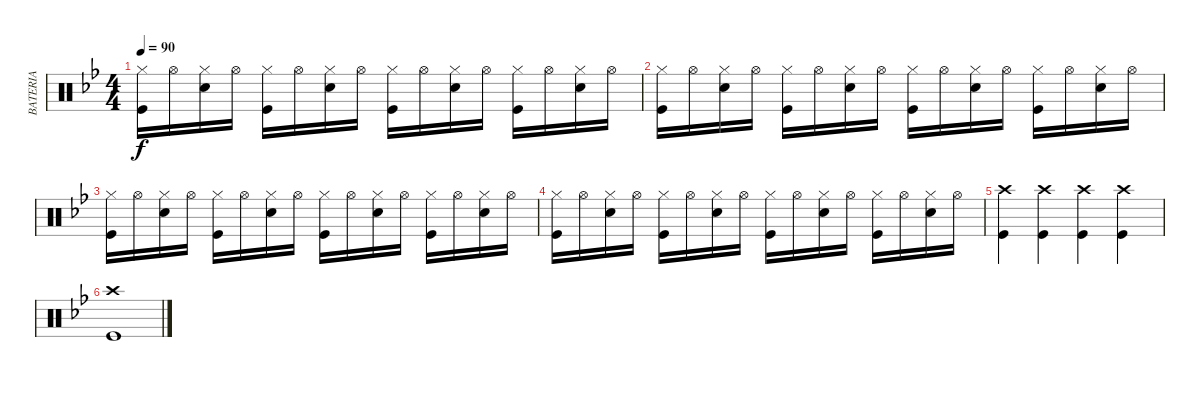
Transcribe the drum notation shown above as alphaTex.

\track ("BATERIA" "BATERIA") {instrument percussion}
\staff {score}
\articulation defaults
\ts (4 4)
\tempo 90
\clef neutral
\ks gminor
("Hi-Hat (closed)" "Kick (hit)").16{dy f} "Hi-Hat (open)".16 ("Hi-Hat (closed)" "Snare (hit) 2").16 "Hi-Hat (open)".16 ("Hi-Hat (closed)" "Kick (hit)").16 "Hi-Hat (open)".16 ("Hi-Hat (closed)" "Snare (hit) 2").16 "Hi-Hat (open)".16 ("Hi-Hat (closed)" "Kick (hit)").16 "Hi-Hat (open)".16 ("Hi-Hat (closed)" "Snare (hit) 2").16 "Hi-Hat (open)".16 ("Hi-Hat (closed)" "Kick (hit)").16 "Hi-Hat (open)".16 ("Hi-Hat (closed)" "Snare (hit) 2").16 "Hi-Hat (open)".16 |
("Hi-Hat (closed)" "Kick (hit)").16 "Hi-Hat (open)".16 ("Hi-Hat (closed)" "Snare (hit) 2").16 "Hi-Hat (open)".16 ("Hi-Hat (closed)" "Kick (hit)").16 "Hi-Hat (open)".16 ("Hi-Hat (closed)" "Snare (hit) 2").16 "Hi-Hat (open)".16 ("Hi-Hat (closed)" "Kick (hit)").16 "Hi-Hat (open)".16 ("Hi-Hat (closed)" "Snare (hit) 2").16 "Hi-Hat (open)".16 ("Hi-Hat (closed)" "Kick (hit)").16 "Hi-Hat (open)".16 ("Hi-Hat (closed)" "Snare (hit) 2").16 "Hi-Hat (open)".16 |
("Hi-Hat (closed)" "Kick (hit)").16 "Hi-Hat (open)".16 ("Hi-Hat (closed)" "Snare (hit) 2").16 "Hi-Hat (open)".16 ("Hi-Hat (closed)" "Kick (hit)").16 "Hi-Hat (open)".16 ("Hi-Hat (closed)" "Snare (hit) 2").16 "Hi-Hat (open)".16 ("Hi-Hat (closed)" "Kick (hit)").16 "Hi-Hat (open)".16 ("Hi-Hat (closed)" "Snare (hit) 2").16 "Hi-Hat (open)".16 ("Hi-Hat (closed)" "Kick (hit)").16 "Hi-Hat (open)".16 ("Hi-Hat (closed)" "Snare (hit) 2").16 "Hi-Hat (open)".16 |
("Hi-Hat (closed)" "Kick (hit)").16 "Hi-Hat (open)".16 ("Hi-Hat (closed)" "Snare (hit) 2").16 "Hi-Hat (open)".16 ("Hi-Hat (closed)" "Kick (hit)").16 "Hi-Hat (open)".16 ("Hi-Hat (closed)" "Snare (hit) 2").16 "Hi-Hat (open)".16 ("Hi-Hat (closed)" "Kick (hit)").16 "Hi-Hat (open)".16 ("Hi-Hat (closed)" "Snare (hit) 2").16 "Hi-Hat (open)".16 ("Hi-Hat (closed)" "Kick (hit)").16 "Hi-Hat (open)".16 ("Hi-Hat (closed)" "Snare (hit) 2").16 "Hi-Hat (open)".16 |
("Kick (hit)" "Crash high (hit)").4 ("Kick (hit)" "Crash high (hit)").4 ("Kick (hit)" "Crash high (hit)").4 ("Kick (hit)" "Crash high (hit)").4 |
("Kick (hit)" "Crash high (hit)").1
